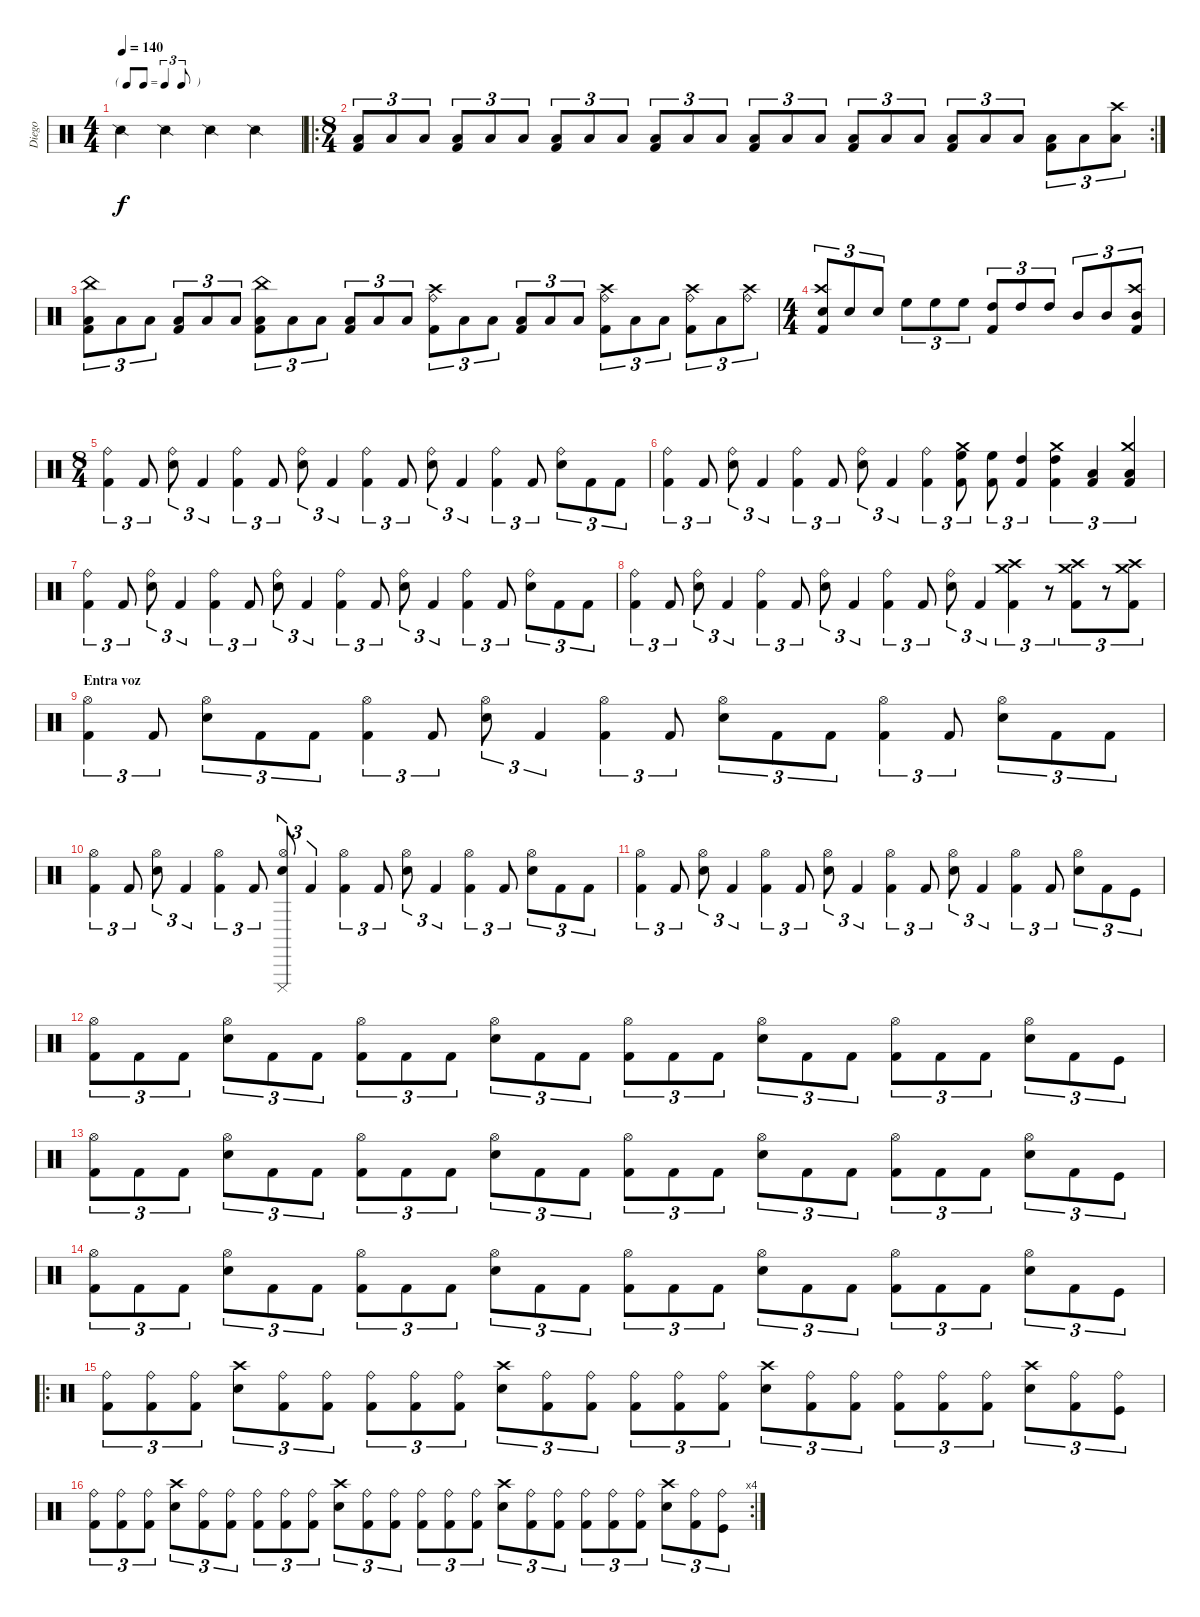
\track ("Diego" "Diego") {instrument percussion}
\staff {score}
\articulation defaults
\ts (4 4)
\tf triplet8th
\tempo 140
\clef neutral
\ks c "Snare (side stick) 2".4{dy f} "Snare (side stick) 2".4 "Snare (side stick) 2".4 "Snare (side stick) 2".4
|
\ro
\rc 2
\ts (8 4)
("Low Floor Tom (hit)" "Kick (hit) 2").8{tu (3 2)} "Low Floor Tom (hit)".8{tu (3 2)} "Low Floor Tom (hit)".8{tu (3 2)} ("Low Floor Tom (hit)" "Kick (hit) 2").8{tu (3 2)} "Low Floor Tom (hit)".8{tu (3 2)} "Low Floor Tom (hit)".8{tu (3 2)} ("Low Floor Tom (hit)" "Kick (hit) 2").8{tu (3 2)} "Low Floor Tom (hit)".8{tu (3 2)} "Low Floor Tom (hit)".8{tu (3 2)} ("Low Floor Tom (hit)" "Kick (hit) 2").8{tu (3 2)} "Low Floor Tom (hit)".8{tu (3 2)} "Low Floor Tom (hit)".8{tu (3 2)} ("Low Floor Tom (hit)" "Kick (hit) 2").8{tu (3 2)} "Low Floor Tom (hit)".8{tu (3 2)} "Low Floor Tom (hit)".8{tu (3 2)} ("Low Floor Tom (hit)" "Kick (hit) 2").8{tu (3 2)} "Low Floor Tom (hit)".8{tu (3 2)} "Low Floor Tom (hit)".8{tu (3 2)} ("Low Floor Tom (hit)" "Kick (hit) 2").8{tu (3 2)} "Low Floor Tom (hit)".8{tu (3 2)} "Low Floor Tom (hit)".8{tu (3 2)} ("Low Floor Tom (hit)" "Kick (hit) 2").8{tu (3 2)} "Low Floor Tom (hit)".8{tu (3 2)} ("Crash high (hit)" "Low Floor Tom (hit)").8{tu (3 2)} |
("China (hit)" "Low Floor Tom (hit)" "Kick (hit) 2").8{tu (3 2)} "Low Floor Tom (hit)".8{tu (3 2)} "Low Floor Tom (hit)".8{tu (3 2)} ("Low Floor Tom (hit)" "Kick (hit) 2").8{tu (3 2)} "Low Floor Tom (hit)".8{tu (3 2)} "Low Floor Tom (hit)".8{tu (3 2)} ("China (hit)" "Low Floor Tom (hit)" "Kick (hit) 2").8{tu (3 2)} "Low Floor Tom (hit)".8{tu (3 2)} "Low Floor Tom (hit)".8{tu (3 2)} ("Low Floor Tom (hit)" "Kick (hit) 2").8{tu (3 2)} "Low Floor Tom (hit)".8{tu (3 2)} "Low Floor Tom (hit)".8{tu (3 2)} ("Crash high (hit)" "Ride (bell)" "Kick (hit) 2").8{tu (3 2)} "Low Floor Tom (hit)".8{tu (3 2)} "Low Floor Tom (hit)".8{tu (3 2)} ("Low Floor Tom (hit)" "Kick (hit) 2").8{tu (3 2)} "Low Floor Tom (hit)".8{tu (3 2)} "Low Floor Tom (hit)".8{tu (3 2)} ("Crash high (hit)" "Ride (bell)" "Kick (hit) 2").8{tu (3 2)} "Low Floor Tom (hit)".8{tu (3 2)} "Low Floor Tom (hit)".8{tu (3 2)} ("Crash high (hit)" "Ride (bell)" "Kick (hit) 2").8{tu (3 2)} "Low Floor Tom (hit)".8{tu (3 2)} ("Crash high (hit)" "Ride (bell)").8{tu (3 2)} |
\ts (4 4)
("Crash high (hit)" "Snare (hit) 2" "Kick (hit) 2").8{tu (3 2)} "Snare (hit) 2".8{tu (3 2)} "Snare (hit) 2".8{tu (3 2)} "High Floor Tom (hit)".8{tu (3 2)} "High Floor Tom (hit)".8{tu (3 2)} "High Floor Tom (hit)".8{tu (3 2)} ("High Tom (hit)" "Kick (hit) 2").8{tu (3 2)} "High Tom (hit)".8{tu (3 2)} "High Tom (hit)".8{tu (3 2)} "Mid Tom (hit)".8{tu (3 2)} "Mid Tom (hit)".8{tu (3 2)} ("Crash high (hit)" "Mid Tom (hit)" "Kick (hit) 2").8{tu (3 2)} |
\ts (8 4)
("Ride (bell)" "Kick (hit) 2").4{tu (3 2)} "Kick (hit) 2".8{tu (3 2)} ("Ride (bell)" "Snare (hit) 2").8{tu (3 2)} "Kick (hit) 2".4{tu (3 2)} ("Ride (bell)" "Kick (hit) 2").4{tu (3 2)} "Kick (hit) 2".8{tu (3 2)} ("Ride (bell)" "Snare (hit) 2").8{tu (3 2)} "Kick (hit) 2".4{tu (3 2)} ("Ride (bell)" "Kick (hit) 2").4{tu (3 2)} "Kick (hit) 2".8{tu (3 2)} ("Ride (bell)" "Snare (hit) 2").8{tu (3 2)} "Kick (hit) 2".4{tu (3 2)} ("Ride (bell)" "Kick (hit) 2").4{tu (3 2)} "Kick (hit) 2".8{tu (3 2)} ("Ride (bell)" "Snare (hit) 2").8{tu (3 2)} "Kick (hit) 2".8{tu (3 2)} "Kick (hit) 2".8{tu (3 2)} |
("Ride (bell)" "Kick (hit) 2").4{tu (3 2)} "Kick (hit) 2".8{tu (3 2)} ("Ride (bell)" "Snare (hit) 2").8{tu (3 2)} "Kick (hit) 2".4{tu (3 2)} ("Ride (bell)" "Kick (hit) 2").4{tu (3 2)} "Kick (hit) 2".8{tu (3 2)} ("Ride (bell)" "Snare (hit) 2").8{tu (3 2)} "Kick (hit) 2".4{tu (3 2)} ("Ride (bell)" "Kick (hit) 2").4{tu (3 2)} ("Crash medium (hit)" "High Floor Tom (hit)" "Kick (hit) 2").8{tu (3 2)} ("High Floor Tom (hit)" "Kick (hit) 2").8{tu (3 2)} ("High Tom (hit)" "Kick (hit) 2").4{tu (3 2)} ("Crash medium (hit)" "High Tom (hit)" "Kick (hit) 2").4{tu (3 2)} ("Low Tom (hit)" "Kick (hit) 2").4{tu (3 2)} ("Crash medium (hit)" "Low Tom (hit)" "Kick (hit) 2").4{tu (3 2)} |
("Ride (bell)" "Kick (hit) 2").4{tu (3 2)} "Kick (hit) 2".8{tu (3 2)} ("Ride (bell)" "Snare (hit) 2").8{tu (3 2)} "Kick (hit) 2".4{tu (3 2)} ("Ride (bell)" "Kick (hit) 2").4{tu (3 2)} "Kick (hit) 2".8{tu (3 2)} ("Ride (bell)" "Snare (hit) 2").8{tu (3 2)} "Kick (hit) 2".4{tu (3 2)} ("Ride (bell)" "Kick (hit) 2").4{tu (3 2)} "Kick (hit) 2".8{tu (3 2)} ("Ride (bell)" "Snare (hit) 2").8{tu (3 2)} "Kick (hit) 2".4{tu (3 2)} ("Ride (bell)" "Kick (hit) 2").4{tu (3 2)} "Kick (hit) 2".8{tu (3 2)} ("Ride (bell)" "Snare (hit) 2").8{tu (3 2)} "Kick (hit) 2".8{tu (3 2)} "Kick (hit) 2".8{tu (3 2)} |
("Ride (bell)" "Kick (hit) 2").4{tu (3 2)} "Kick (hit) 2".8{tu (3 2)} ("Ride (bell)" "Snare (hit) 2").8{tu (3 2)} "Kick (hit) 2".4{tu (3 2)} ("Ride (bell)" "Kick (hit) 2").4{tu (3 2)} "Kick (hit) 2".8{tu (3 2)} ("Ride (bell)" "Snare (hit) 2").8{tu (3 2)} "Kick (hit) 2".4{tu (3 2)} ("Ride (bell)" "Kick (hit) 2").4{tu (3 2)} "Kick (hit) 2".8{tu (3 2)} ("Ride (bell)" "Snare (hit) 2").8{tu (3 2)} "Kick (hit) 2".4{tu (3 2)} ("Crash high (hit)" "Crash medium (hit)" "Kick (hit) 2").4{tu (3 2)} r.8{tu (3 2)} ("Crash high (hit)" "Crash medium (hit)" "Kick (hit) 2").8{tu (3 2)} r.8{tu (3 2)} ("Crash high (hit)" "Crash medium (hit)" "Kick (hit) 2").8{tu (3 2)} |
\section ("" "Entra voz")
("Hi-Hat (open)" "Kick (hit) 2").4{tu (3 2)} "Kick (hit) 2".8{tu (3 2)} ("Hi-Hat (open)" "Snare (hit) 2").8{tu (3 2)} "Kick (hit) 2".8{tu (3 2)} "Kick (hit) 2".8{tu (3 2)} ("Hi-Hat (open)" "Kick (hit) 2").4{tu (3 2)} "Kick (hit) 2".8{tu (3 2)} ("Hi-Hat (open)" "Snare (hit) 2").8{tu (3 2)} "Kick (hit) 2".4{tu (3 2)} ("Hi-Hat (open)" "Kick (hit) 2").4{tu (3 2)} "Kick (hit) 2".8{tu (3 2)} ("Hi-Hat (open)" "Snare (hit) 2").8{tu (3 2)} "Kick (hit) 2".8{tu (3 2)} "Kick (hit) 2".8{tu (3 2)} ("Hi-Hat (open)" "Kick (hit) 2").4{tu (3 2)} "Kick (hit) 2".8{tu (3 2)} ("Hi-Hat (open)" "Snare (hit) 2").8{tu (3 2)} "Kick (hit) 2".8{tu (3 2)} "Kick (hit) 2".8{tu (3 2)} |
("Hi-Hat (open)" "Kick (hit) 2").4{tu (3 2)} "Kick (hit) 2".8{tu (3 2)} ("Hi-Hat (open)" "Snare (hit) 2").8{tu (3 2)} "Kick (hit) 2".4{tu (3 2)} ("Hi-Hat (open)" "Kick (hit) 2").4{tu (3 2)} "Kick (hit) 2".8{tu (3 2)} ("Hi-Hat (open)" "Cuica (mute)" "Snare (hit) 2").8{tu (3 2)} "Kick (hit) 2".4{tu (3 2)} ("Hi-Hat (open)" "Kick (hit) 2").4{tu (3 2)} "Kick (hit) 2".8{tu (3 2)} ("Hi-Hat (open)" "Snare (hit) 2").8{tu (3 2)} "Kick (hit) 2".4{tu (3 2)} ("Hi-Hat (open)" "Kick (hit) 2").4{tu (3 2)} "Kick (hit) 2".8{tu (3 2)} ("Hi-Hat (open)" "Snare (hit) 2").8{tu (3 2)} "Kick (hit) 2".8{tu (3 2)} "Kick (hit) 2".8{tu (3 2)} |
("Hi-Hat (open)" "Kick (hit) 2").4{tu (3 2)} "Kick (hit) 2".8{tu (3 2)} ("Hi-Hat (open)" "Snare (hit) 2").8{tu (3 2)} "Kick (hit) 2".4{tu (3 2)} ("Hi-Hat (open)" "Kick (hit) 2").4{tu (3 2)} "Kick (hit) 2".8{tu (3 2)} ("Hi-Hat (open)" "Snare (hit) 2").8{tu (3 2)} "Kick (hit) 2".4{tu (3 2)} ("Hi-Hat (open)" "Kick (hit) 2").4{tu (3 2)} "Kick (hit) 2".8{tu (3 2)} ("Hi-Hat (open)" "Snare (hit) 2").8{tu (3 2)} "Kick (hit) 2".4{tu (3 2)} ("Hi-Hat (open)" "Kick (hit) 2").4{tu (3 2)} "Kick (hit) 2".8{tu (3 2)} ("Hi-Hat (open)" "Snare (hit) 2").8{tu (3 2)} "Kick (hit) 2".8{tu (3 2)} "Kick (hit)".8{tu (3 2)} |
("Hi-Hat (open)" "Kick (hit) 2").8{tu (3 2)} "Kick (hit) 2".8{tu (3 2)} "Kick (hit) 2".8{tu (3 2)} ("Hi-Hat (open)" "Snare (hit) 2").8{tu (3 2)} "Kick (hit) 2".8{tu (3 2)} "Kick (hit) 2".8{tu (3 2)} ("Hi-Hat (open)" "Kick (hit) 2").8{tu (3 2)} "Kick (hit) 2".8{tu (3 2)} "Kick (hit) 2".8{tu (3 2)} ("Hi-Hat (open)" "Snare (hit) 2").8{tu (3 2)} "Kick (hit) 2".8{tu (3 2)} "Kick (hit) 2".8{tu (3 2)} ("Hi-Hat (open)" "Kick (hit) 2").8{tu (3 2)} "Kick (hit) 2".8{tu (3 2)} "Kick (hit) 2".8{tu (3 2)} ("Hi-Hat (open)" "Snare (hit) 2").8{tu (3 2)} "Kick (hit) 2".8{tu (3 2)} "Kick (hit) 2".8{tu (3 2)} ("Hi-Hat (open)" "Kick (hit) 2").8{tu (3 2)} "Kick (hit) 2".8{tu (3 2)} "Kick (hit) 2".8{tu (3 2)} ("Hi-Hat (open)" "Snare (hit) 2").8{tu (3 2)} "Kick (hit) 2".8{tu (3 2)} "Kick (hit)".8{tu (3 2)} |
("Hi-Hat (open)" "Kick (hit) 2").8{tu (3 2)} "Kick (hit) 2".8{tu (3 2)} "Kick (hit) 2".8{tu (3 2)} ("Hi-Hat (open)" "Snare (hit) 2").8{tu (3 2)} "Kick (hit) 2".8{tu (3 2)} "Kick (hit) 2".8{tu (3 2)} ("Hi-Hat (open)" "Kick (hit) 2").8{tu (3 2)} "Kick (hit) 2".8{tu (3 2)} "Kick (hit) 2".8{tu (3 2)} ("Hi-Hat (open)" "Snare (hit) 2").8{tu (3 2)} "Kick (hit) 2".8{tu (3 2)} "Kick (hit) 2".8{tu (3 2)} ("Hi-Hat (open)" "Kick (hit) 2").8{tu (3 2)} "Kick (hit) 2".8{tu (3 2)} "Kick (hit) 2".8{tu (3 2)} ("Hi-Hat (open)" "Snare (hit) 2").8{tu (3 2)} "Kick (hit) 2".8{tu (3 2)} "Kick (hit) 2".8{tu (3 2)} ("Hi-Hat (open)" "Kick (hit) 2").8{tu (3 2)} "Kick (hit) 2".8{tu (3 2)} "Kick (hit) 2".8{tu (3 2)} ("Hi-Hat (open)" "Snare (hit) 2").8{tu (3 2)} "Kick (hit) 2".8{tu (3 2)} "Kick (hit)".8{tu (3 2)} |
("Hi-Hat (open)" "Kick (hit) 2").8{tu (3 2)} "Kick (hit) 2".8{tu (3 2)} "Kick (hit) 2".8{tu (3 2)} ("Hi-Hat (open)" "Snare (hit) 2").8{tu (3 2)} "Kick (hit) 2".8{tu (3 2)} "Kick (hit) 2".8{tu (3 2)} ("Hi-Hat (open)" "Kick (hit) 2").8{tu (3 2)} "Kick (hit) 2".8{tu (3 2)} "Kick (hit) 2".8{tu (3 2)} ("Hi-Hat (open)" "Snare (hit) 2").8{tu (3 2)} "Kick (hit) 2".8{tu (3 2)} "Kick (hit) 2".8{tu (3 2)} ("Hi-Hat (open)" "Kick (hit) 2").8{tu (3 2)} "Kick (hit) 2".8{tu (3 2)} "Kick (hit) 2".8{tu (3 2)} ("Hi-Hat (open)" "Snare (hit) 2").8{tu (3 2)} "Kick (hit) 2".8{tu (3 2)} "Kick (hit) 2".8{tu (3 2)} ("Hi-Hat (open)" "Kick (hit) 2").8{tu (3 2)} "Kick (hit) 2".8{tu (3 2)} "Kick (hit) 2".8{tu (3 2)} ("Hi-Hat (open)" "Snare (hit) 2").8{tu (3 2)} "Kick (hit) 2".8{tu (3 2)} "Kick (hit)".8{tu (3 2)} |
\ro
("Ride (bell)" "Kick (hit) 2").8{tu (3 2)} ("Ride (bell)" "Kick (hit) 2").8{tu (3 2)} ("Ride (bell)" "Kick (hit) 2").8{tu (3 2)} ("Crash high (hit)" "Snare (hit) 2").8{tu (3 2)} ("Ride (bell)" "Kick (hit) 2").8{tu (3 2)} ("Ride (bell)" "Kick (hit) 2").8{tu (3 2)} ("Ride (bell)" "Kick (hit) 2").8{tu (3 2)} ("Ride (bell)" "Kick (hit) 2").8{tu (3 2)} ("Ride (bell)" "Kick (hit) 2").8{tu (3 2)} ("Crash high (hit)" "Snare (hit) 2").8{tu (3 2)} ("Ride (bell)" "Kick (hit) 2").8{tu (3 2)} ("Ride (bell)" "Kick (hit) 2").8{tu (3 2)} ("Ride (bell)" "Kick (hit) 2").8{tu (3 2)} ("Ride (bell)" "Kick (hit) 2").8{tu (3 2)} ("Ride (bell)" "Kick (hit) 2").8{tu (3 2)} ("Crash high (hit)" "Snare (hit) 2").8{tu (3 2)} ("Ride (bell)" "Kick (hit) 2").8{tu (3 2)} ("Ride (bell)" "Kick (hit) 2").8{tu (3 2)} ("Ride (bell)" "Kick (hit) 2").8{tu (3 2)} ("Ride (bell)" "Kick (hit) 2").8{tu (3 2)} ("Ride (bell)" "Kick (hit) 2").8{tu (3 2)} ("Crash high (hit)" "Snare (hit) 2").8{tu (3 2)} ("Ride (bell)" "Kick (hit) 2").8{tu (3 2)} ("Ride (bell)" "Kick (hit)").8{tu (3 2)} |
\rc 4
("Ride (bell)" "Kick (hit) 2").8{tu (3 2)} ("Ride (bell)" "Kick (hit) 2").8{tu (3 2)} ("Ride (bell)" "Kick (hit) 2").8{tu (3 2)} ("Crash high (hit)" "Snare (hit) 2").8{tu (3 2)} ("Ride (bell)" "Kick (hit) 2").8{tu (3 2)} ("Ride (bell)" "Kick (hit) 2").8{tu (3 2)} ("Ride (bell)" "Kick (hit) 2").8{tu (3 2)} ("Ride (bell)" "Kick (hit) 2").8{tu (3 2)} ("Ride (bell)" "Kick (hit) 2").8{tu (3 2)} ("Crash high (hit)" "Snare (hit) 2").8{tu (3 2)} ("Ride (bell)" "Kick (hit) 2").8{tu (3 2)} ("Ride (bell)" "Kick (hit) 2").8{tu (3 2)} ("Ride (bell)" "Kick (hit) 2").8{tu (3 2)} ("Ride (bell)" "Kick (hit) 2").8{tu (3 2)} ("Ride (bell)" "Kick (hit) 2").8{tu (3 2)} ("Crash high (hit)" "Snare (hit) 2").8{tu (3 2)} ("Ride (bell)" "Kick (hit) 2").8{tu (3 2)} ("Ride (bell)" "Kick (hit) 2").8{tu (3 2)} ("Ride (bell)" "Kick (hit) 2").8{tu (3 2)} ("Ride (bell)" "Kick (hit) 2").8{tu (3 2)} ("Ride (bell)" "Kick (hit) 2").8{tu (3 2)} ("Crash high (hit)" "Snare (hit) 2").8{tu (3 2)} ("Ride (bell)" "Kick (hit) 2").8{tu (3 2)} ("Ride (bell)" "Kick (hit)").8{tu (3 2)}
